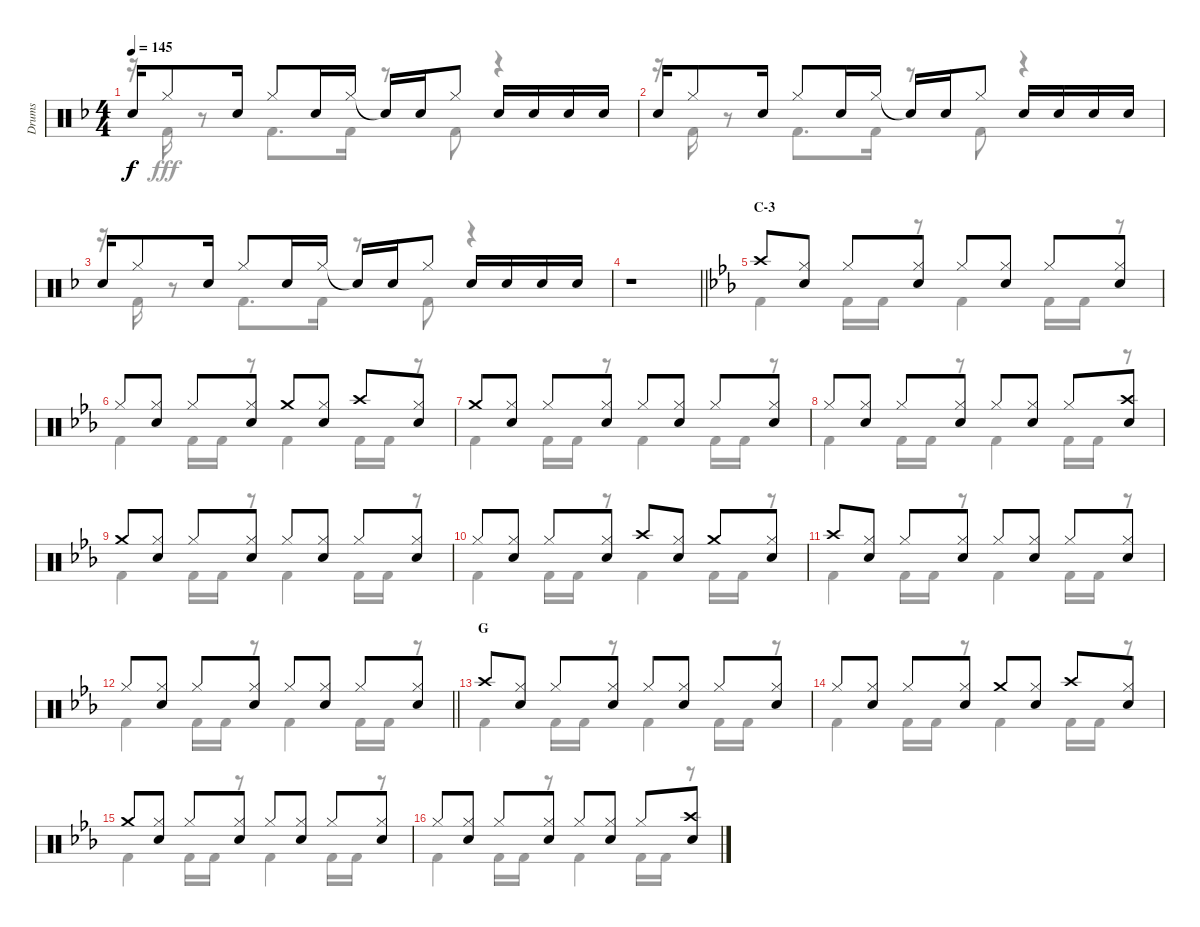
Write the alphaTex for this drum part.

\track ("Drums" "Drums") {instrument percussion}
\staff {score}
\articulation defaults
\voice
\ts (4 4)
\tempo 145
\clef neutral
\ks f "Snare (hit) 2".16{dy f} "Hi-Hat (closed)".8 "Snare (hit) 2".16 "Hi-Hat (closed)".8 "Snare (hit) 2".16 "Hi-Hat (closed)".16 "Snare (hit)"{t}.16 "Snare (hit) 2".16 "Hi-Hat (closed)".8 "Snare (hit) 2".16 "Snare (hit) 2".16 "Snare (hit) 2".16 "Snare (hit) 2".16
|
"Snare (hit) 2".16 "Hi-Hat (closed)".8 "Snare (hit) 2".16 "Hi-Hat (closed)".8 "Snare (hit) 2".16 "Hi-Hat (closed)".16 "Snare (hit)"{t}.16 "Snare (hit) 2".16 "Hi-Hat (closed)".8 "Snare (hit) 2".16 "Snare (hit) 2".16 "Snare (hit) 2".16 "Snare (hit) 2".16 |
"Snare (hit) 2".16 "Hi-Hat (closed)".8 "Snare (hit) 2".16 "Hi-Hat (closed)".8 "Snare (hit) 2".16 "Hi-Hat (closed)".16 "Snare (hit)"{t}.16 "Snare (hit) 2".16 "Hi-Hat (closed)".8 "Snare (hit) 2".16 "Snare (hit) 2".16 "Snare (hit) 2".16 "Snare (hit) 2".16 |
\barLineRight lightlight
r.1 |
\section ("" "C-3")
\ks eb "Crash high (hit)".8
("Hi-Hat (closed)" "Snare (hit) 2").8 "Hi-Hat (closed)".8 ("Hi-Hat (closed)" "Snare (hit) 2").8 "Hi-Hat (closed)".8 ("Hi-Hat (closed)" "Snare (hit) 2").8 "Hi-Hat (closed)".8 ("Hi-Hat (closed)" "Snare (hit) 2").8 |
"Hi-Hat (closed)".8 ("Hi-Hat (closed)" "Snare (hit) 2").8 "Hi-Hat (closed)".8 ("Hi-Hat (closed)" "Snare (hit) 2").8 "Crash medium (hit)".8 ("Hi-Hat (closed)" "Snare (hit) 2").8 "Crash high (hit)".8 ("Hi-Hat (closed)" "Snare (hit) 2").8 |
"Crash medium (hit)".8 ("Hi-Hat (closed)" "Snare (hit) 2").8 "Hi-Hat (closed)".8 ("Hi-Hat (closed)" "Snare (hit) 2").8 "Hi-Hat (closed)".8 ("Hi-Hat (closed)" "Snare (hit) 2").8 "Hi-Hat (closed)".8 ("Hi-Hat (closed)" "Snare (hit) 2").8 |
"Hi-Hat (closed)".8 ("Hi-Hat (closed)" "Snare (hit) 2").8 "Hi-Hat (closed)".8 ("Hi-Hat (closed)" "Snare (hit) 2").8 "Hi-Hat (closed)".8 ("Hi-Hat (closed)" "Snare (hit) 2").8 "Hi-Hat (closed)".8 ("Crash high (hit)" "Snare (hit) 2").8 |
"Crash medium (hit)".8 ("Hi-Hat (closed)" "Snare (hit) 2").8 "Hi-Hat (closed)".8 ("Hi-Hat (closed)" "Snare (hit) 2").8 "Hi-Hat (closed)".8 ("Hi-Hat (closed)" "Snare (hit) 2").8 "Hi-Hat (closed)".8 ("Hi-Hat (closed)" "Snare (hit) 2").8 |
"Hi-Hat (closed)".8 ("Hi-Hat (closed)" "Snare (hit) 2").8 "Hi-Hat (closed)".8 ("Hi-Hat (closed)" "Snare (hit) 2").8 "Crash high (hit)".8 ("Hi-Hat (closed)" "Snare (hit) 2").8 "Crash medium (hit)".8 ("Hi-Hat (closed)" "Snare (hit) 2").8 |
"Crash high (hit)".8 ("Hi-Hat (closed)" "Snare (hit) 2").8 "Hi-Hat (closed)".8 ("Hi-Hat (closed)" "Snare (hit) 2").8 "Hi-Hat (closed)".8 ("Hi-Hat (closed)" "Snare (hit) 2").8 "Hi-Hat (closed)".8 ("Hi-Hat (closed)" "Snare (hit) 2").8 |
\barLineRight lightlight "Hi-Hat (closed)".8
("Hi-Hat (closed)" "Snare (hit) 2").8 "Hi-Hat (closed)".8 ("Hi-Hat (closed)" "Snare (hit) 2").8 "Hi-Hat (closed)".8 ("Hi-Hat (closed)" "Snare (hit) 2").8 "Hi-Hat (closed)".8 ("Hi-Hat (closed)" "Snare (hit) 2").8 |
\section ("" "G")
"Crash high (hit)".8 ("Hi-Hat (closed)" "Snare (hit) 2").8 "Hi-Hat (closed)".8 ("Hi-Hat (closed)" "Snare (hit) 2").8 "Hi-Hat (closed)".8 ("Hi-Hat (closed)" "Snare (hit) 2").8 "Hi-Hat (closed)".8 ("Hi-Hat (closed)" "Snare (hit) 2").8 |
"Hi-Hat (closed)".8 ("Hi-Hat (closed)" "Snare (hit) 2").8 "Hi-Hat (closed)".8 ("Hi-Hat (closed)" "Snare (hit) 2").8 "Crash medium (hit)".8 ("Hi-Hat (closed)" "Snare (hit) 2").8 "Crash high (hit)".8 ("Hi-Hat (closed)" "Snare (hit) 2").8 |
"Crash medium (hit)".8 ("Hi-Hat (closed)" "Snare (hit) 2").8 "Hi-Hat (closed)".8 ("Hi-Hat (closed)" "Snare (hit) 2").8 "Hi-Hat (closed)".8 ("Hi-Hat (closed)" "Snare (hit) 2").8 "Hi-Hat (closed)".8 ("Hi-Hat (closed)" "Snare (hit) 2").8 |
"Hi-Hat (closed)".8 ("Hi-Hat (closed)" "Snare (hit) 2").8 "Hi-Hat (closed)".8 ("Hi-Hat (closed)" "Snare (hit) 2").8 "Hi-Hat (closed)".8 ("Hi-Hat (closed)" "Snare (hit) 2").8 "Hi-Hat (closed)".8 ("Crash high (hit)" "Snare (hit) 2").8
\voice
\clef neutral
\ottava regular
\simile none
\ks f
r.16{dy fff} "Kick (hit) 2".16 r.8 "Kick (hit) 2".8{d} "Kick (hit) 2".16 r.8 "Kick (hit) 2".8 r.4 |
r.16 "Kick (hit) 2".16 r.8 "Kick (hit) 2".8{d} "Kick (hit) 2".16 r.8 "Kick (hit) 2".8 r.4 |
r.16 "Kick (hit) 2".16 r.8 "Kick (hit) 2".8{d} "Kick (hit) 2".16 r.8 "Kick (hit) 2".8 r.4 |
\barLineRight lightlight
r.1 |
\ks eb "Kick (hit) 2".4 "Kick (hit) 2".16 "Kick (hit) 2".16
r.8 "Kick (hit) 2".4 "Kick (hit) 2".16 "Kick (hit) 2".16 r.8 |
"Kick (hit) 2".4 "Kick (hit) 2".16 "Kick (hit) 2".16 r.8 "Kick (hit) 2".4 "Kick (hit) 2".16 "Kick (hit) 2".16 r.8 |
"Kick (hit) 2".4 "Kick (hit) 2".16 "Kick (hit) 2".16 r.8 "Kick (hit) 2".4 "Kick (hit) 2".16 "Kick (hit) 2".16 r.8 |
"Kick (hit) 2".4 "Kick (hit) 2".16 "Kick (hit) 2".16 r.8 "Kick (hit) 2".4 "Kick (hit) 2".16 "Kick (hit) 2".16 r.8 |
"Kick (hit) 2".4 "Kick (hit) 2".16 "Kick (hit) 2".16 r.8 "Kick (hit) 2".4 "Kick (hit) 2".16 "Kick (hit) 2".16 r.8 |
"Kick (hit) 2".4 "Kick (hit) 2".16 "Kick (hit) 2".16 r.8 "Kick (hit) 2".4 "Kick (hit) 2".16 "Kick (hit) 2".16 r.8 |
"Kick (hit) 2".4 "Kick (hit) 2".16 "Kick (hit) 2".16 r.8 "Kick (hit) 2".4 "Kick (hit) 2".16 "Kick (hit) 2".16 r.8 |
\barLineRight lightlight "Kick (hit) 2".4 "Kick (hit) 2".16 "Kick (hit) 2".16
r.8 "Kick (hit) 2".4 "Kick (hit) 2".16 "Kick (hit) 2".16 r.8 |
"Kick (hit) 2".4 "Kick (hit) 2".16 "Kick (hit) 2".16 r.8 "Kick (hit) 2".4 "Kick (hit) 2".16 "Kick (hit) 2".16 r.8 |
"Kick (hit) 2".4 "Kick (hit) 2".16 "Kick (hit) 2".16 r.8 "Kick (hit) 2".4 "Kick (hit) 2".16 "Kick (hit) 2".16 r.8 |
"Kick (hit) 2".4 "Kick (hit) 2".16 "Kick (hit) 2".16 r.8 "Kick (hit) 2".4 "Kick (hit) 2".16 "Kick (hit) 2".16 r.8 |
"Kick (hit) 2".4 "Kick (hit) 2".16 "Kick (hit) 2".16 r.8 "Kick (hit) 2".4 "Kick (hit) 2".16 "Kick (hit) 2".16 r.8
